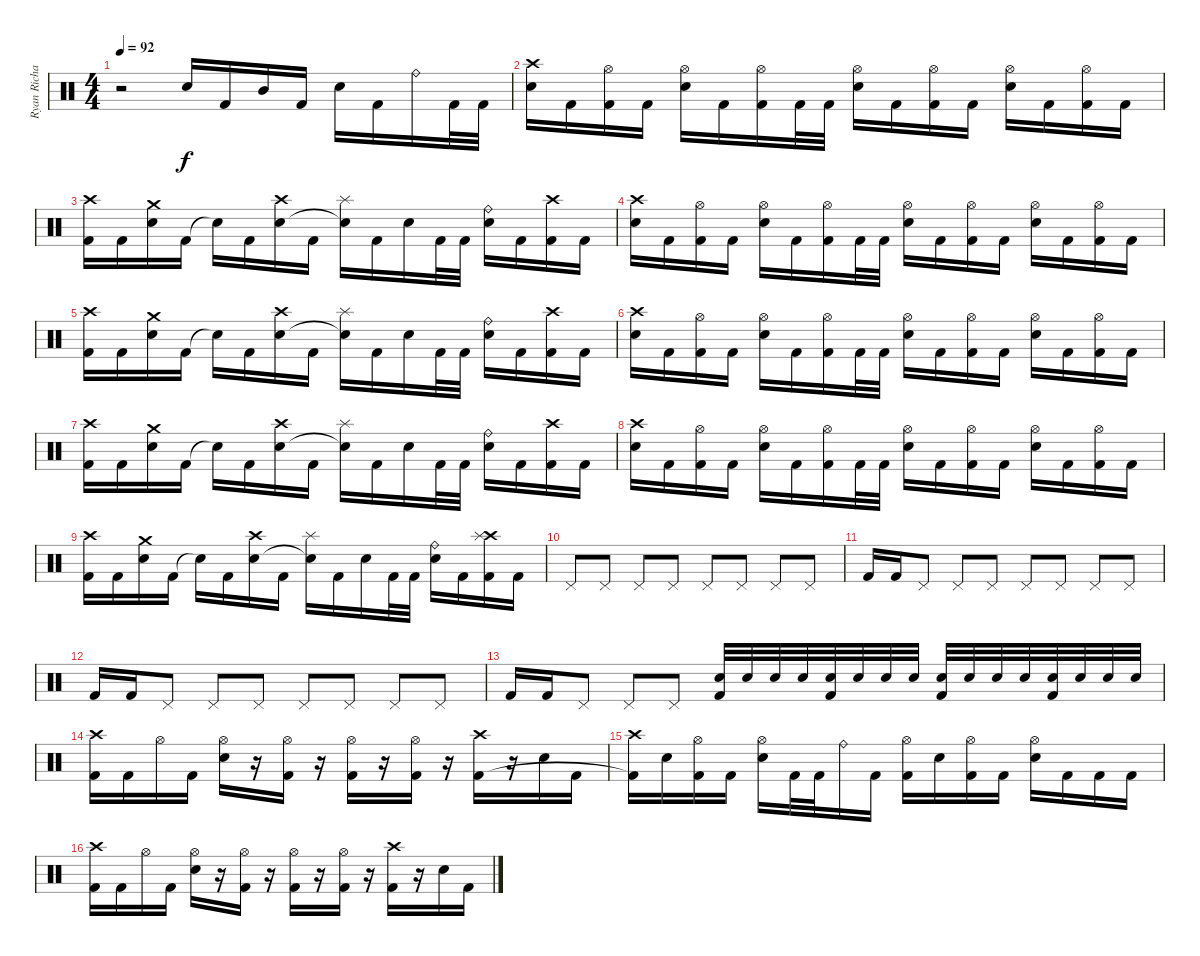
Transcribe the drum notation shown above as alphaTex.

\track ("Ryan Richards" "Ryan Richa") {instrument percussion}
\staff {score}
\articulation defaults
\ts (4 4)
\tempo 92
\clef neutral
\ks c
r.2{dy f} "Snare (hit) 2".16 "Kick (hit) 2".16 "Mid Tom (hit)".16 "Kick (hit) 2".16 "Snare (hit) 2".16 "Kick (hit) 2".16 "Ride (bell)".16 "Kick (hit) 2".32 "Kick (hit) 2".32 |
("Crash high (hit)" "Snare (hit) 2").16 "Kick (hit) 2".16 ("Hi-Hat (open)" "Kick (hit) 2").16 "Kick (hit) 2".16 ("Hi-Hat (open)" "Snare (hit) 2").16 "Kick (hit) 2".16 ("Hi-Hat (open)" "Kick (hit) 2").16 "Kick (hit) 2".32 "Kick (hit) 2".32 ("Hi-Hat (open)" "Snare (hit) 2").16 "Kick (hit) 2".16 ("Hi-Hat (open)" "Kick (hit) 2").16 "Kick (hit) 2".16 ("Hi-Hat (open)" "Snare (hit) 2").16 "Kick (hit) 2".16 ("Hi-Hat (open)" "Kick (hit) 2").16 "Kick (hit) 2".16 |
("Crash high (hit)" "Kick (hit) 2").16 "Kick (hit) 2".16 ("Crash medium (hit)" "Snare (hit) 2").16 "Kick (hit) 2".16 "Snare (hit)"{t}.16 "Kick (hit) 2".16 ("Crash high (hit)" "Snare (hit) 2").16 "Kick (hit) 2".16 ("Splash (hit)" "Snare (hit)"{t}).16 "Kick (hit) 2".16 "Snare (hit) 2".16 "Kick (hit) 2".32 "Kick (hit) 2".32 ("Ride (bell)" "Snare (hit) 2").16 "Kick (hit) 2".16 ("Crash high (hit)" "Kick (hit) 2").16 "Kick (hit) 2".16 |
("Crash high (hit)" "Snare (hit) 2").16 "Kick (hit) 2".16 ("Hi-Hat (open)" "Kick (hit) 2").16 "Kick (hit) 2".16 ("Hi-Hat (open)" "Snare (hit) 2").16 "Kick (hit) 2".16 ("Hi-Hat (open)" "Kick (hit) 2").16 "Kick (hit) 2".32 "Kick (hit) 2".32 ("Hi-Hat (open)" "Snare (hit) 2").16 "Kick (hit) 2".16 ("Hi-Hat (open)" "Kick (hit) 2").16 "Kick (hit) 2".16 ("Hi-Hat (open)" "Snare (hit) 2").16 "Kick (hit) 2".16 ("Hi-Hat (open)" "Kick (hit) 2").16 "Kick (hit) 2".16 |
("Crash high (hit)" "Kick (hit) 2").16 "Kick (hit) 2".16 ("Crash medium (hit)" "Snare (hit) 2").16 "Kick (hit) 2".16 "Snare (hit)"{t}.16 "Kick (hit) 2".16 ("Crash high (hit)" "Snare (hit) 2").16 "Kick (hit) 2".16 ("Splash (hit)" "Snare (hit)"{t}).16 "Kick (hit) 2".16 "Snare (hit) 2".16 "Kick (hit) 2".32 "Kick (hit) 2".32 ("Ride (bell)" "Snare (hit) 2").16 "Kick (hit) 2".16 ("Crash high (hit)" "Kick (hit) 2").16 "Kick (hit) 2".16 |
("Crash high (hit)" "Snare (hit) 2").16 "Kick (hit) 2".16 ("Hi-Hat (open)" "Kick (hit) 2").16 "Kick (hit) 2".16 ("Hi-Hat (open)" "Snare (hit) 2").16 "Kick (hit) 2".16 ("Hi-Hat (open)" "Kick (hit) 2").16 "Kick (hit) 2".32 "Kick (hit) 2".32 ("Hi-Hat (open)" "Snare (hit) 2").16 "Kick (hit) 2".16 ("Hi-Hat (open)" "Kick (hit) 2").16 "Kick (hit) 2".16 ("Hi-Hat (open)" "Snare (hit) 2").16 "Kick (hit) 2".16 ("Hi-Hat (open)" "Kick (hit) 2").16 "Kick (hit) 2".16 |
("Crash high (hit)" "Kick (hit) 2").16 "Kick (hit) 2".16 ("Crash medium (hit)" "Snare (hit) 2").16 "Kick (hit) 2".16 "Snare (hit)"{t}.16 "Kick (hit) 2".16 ("Crash high (hit)" "Snare (hit) 2").16 "Kick (hit) 2".16 ("Splash (hit)" "Snare (hit)"{t}).16 "Kick (hit) 2".16 "Snare (hit) 2".16 "Kick (hit) 2".32 "Kick (hit) 2".32 ("Ride (bell)" "Snare (hit) 2").16 "Kick (hit) 2".16 ("Crash high (hit)" "Kick (hit) 2").16 "Kick (hit) 2".16 |
("Crash high (hit)" "Snare (hit) 2").16 "Kick (hit) 2".16 ("Hi-Hat (open)" "Kick (hit) 2").16 "Kick (hit) 2".16 ("Hi-Hat (open)" "Snare (hit) 2").16 "Kick (hit) 2".16 ("Hi-Hat (open)" "Kick (hit) 2").16 "Kick (hit) 2".32 "Kick (hit) 2".32 ("Hi-Hat (open)" "Snare (hit) 2").16 "Kick (hit) 2".16 ("Hi-Hat (open)" "Kick (hit) 2").16 "Kick (hit) 2".16 ("Hi-Hat (open)" "Snare (hit) 2").16 "Kick (hit) 2".16 ("Hi-Hat (open)" "Kick (hit) 2").16 "Kick (hit) 2".16 |
("Crash high (hit)" "Kick (hit) 2").16 "Kick (hit) 2".16 ("Crash medium (hit)" "Snare (hit) 2").16 "Kick (hit) 2".16 "Snare (hit)"{t}.16 "Kick (hit) 2".16 ("Crash high (hit)" "Snare (hit) 2").16 "Kick (hit) 2".16 ("Splash (hit)" "Snare (hit)"{t}).16 "Kick (hit) 2".16 "Snare (hit) 2".16 "Kick (hit) 2".32 "Kick (hit) 2".32 ("Ride (bell)" "Snare (hit) 2").16 "Kick (hit) 2".16 ("Crash high (hit)" "Splash (hit)" "Kick (hit) 2").16 "Kick (hit) 2".16 |
"Pedal Hi-Hat (hit)".8 "Pedal Hi-Hat (hit)".8 "Pedal Hi-Hat (hit)".8 "Pedal Hi-Hat (hit)".8 "Pedal Hi-Hat (hit)".8 "Pedal Hi-Hat (hit)".8 "Pedal Hi-Hat (hit)".8 "Pedal Hi-Hat (hit)".8 |
"Kick (hit) 2".16 "Kick (hit) 2".16 "Pedal Hi-Hat (hit)".8 "Pedal Hi-Hat (hit)".8 "Pedal Hi-Hat (hit)".8 "Pedal Hi-Hat (hit)".8 "Pedal Hi-Hat (hit)".8 "Pedal Hi-Hat (hit)".8 "Pedal Hi-Hat (hit)".8 |
"Kick (hit) 2".16 "Kick (hit) 2".16 "Pedal Hi-Hat (hit)".8 "Pedal Hi-Hat (hit)".8 "Pedal Hi-Hat (hit)".8 "Pedal Hi-Hat (hit)".8 "Pedal Hi-Hat (hit)".8 "Pedal Hi-Hat (hit)".8 "Pedal Hi-Hat (hit)".8 |
"Kick (hit) 2".16 "Kick (hit) 2".16 "Pedal Hi-Hat (hit)".8 "Pedal Hi-Hat (hit)".8 "Pedal Hi-Hat (hit)".8 ("Snare (hit) 2" "Kick (hit) 2").32 "Snare (hit) 2".32 "Snare (hit) 2".32 "Snare (hit) 2".32 ("Snare (hit) 2" "Kick (hit) 2").32 "Snare (hit) 2".32 "Snare (hit) 2".32 "Snare (hit) 2".32 ("Snare (hit) 2" "Kick (hit) 2").32 "Snare (hit) 2".32 "Snare (hit) 2".32 "Snare (hit) 2".32 ("Snare (hit) 2" "Kick (hit) 2").32 "Snare (hit) 2".32 "Snare (hit) 2".32 "Snare (hit) 2".32 |
("Crash high (hit)" "Kick (hit) 2").16 "Kick (hit) 2".16 "Hi-Hat (open)".16 "Kick (hit) 2".16 ("Hi-Hat (open)" "Snare (hit) 2").16 r.16 ("Hi-Hat (open)" "Kick (hit) 2").16 r.16 ("Hi-Hat (open)" "Kick (hit) 2").16 r.16 ("Hi-Hat (open)" "Kick (hit) 2").16 r.16 ("Crash high (hit)" "Kick (hit) 2").16 r.16 "Snare (hit) 2".16 "Kick (hit) 2".16 |
("Crash high (hit)" "Kick (hit) 2"{t}).16 "Snare (hit) 2".16 ("Hi-Hat (open)" "Kick (hit) 2").16 "Kick (hit) 2".16 ("Hi-Hat (open)" "Snare (hit) 2").16 "Kick (hit) 2".32 "Kick (hit) 2".32 "Ride (bell)".16 "Kick (hit) 2".16 ("Hi-Hat (open)" "Kick (hit) 2").16 "Snare (hit) 2".16 ("Hi-Hat (open)" "Kick (hit) 2").16 "Kick (hit) 2".16 ("Hi-Hat (open)" "Snare (hit) 2").16 "Kick (hit) 2".16 "Kick (hit) 2".16 "Kick (hit) 2".16 |
("Crash high (hit)" "Kick (hit) 2").16 "Kick (hit) 2".16 "Hi-Hat (open)".16 "Kick (hit) 2".16 ("Hi-Hat (open)" "Snare (hit) 2").16 r.16 ("Hi-Hat (open)" "Kick (hit) 2").16 r.16 ("Hi-Hat (open)" "Kick (hit) 2").16 r.16 ("Hi-Hat (open)" "Kick (hit) 2").16 r.16 ("Crash high (hit)" "Kick (hit) 2").16 r.16 "Snare (hit) 2".16 "Kick (hit) 2".16
